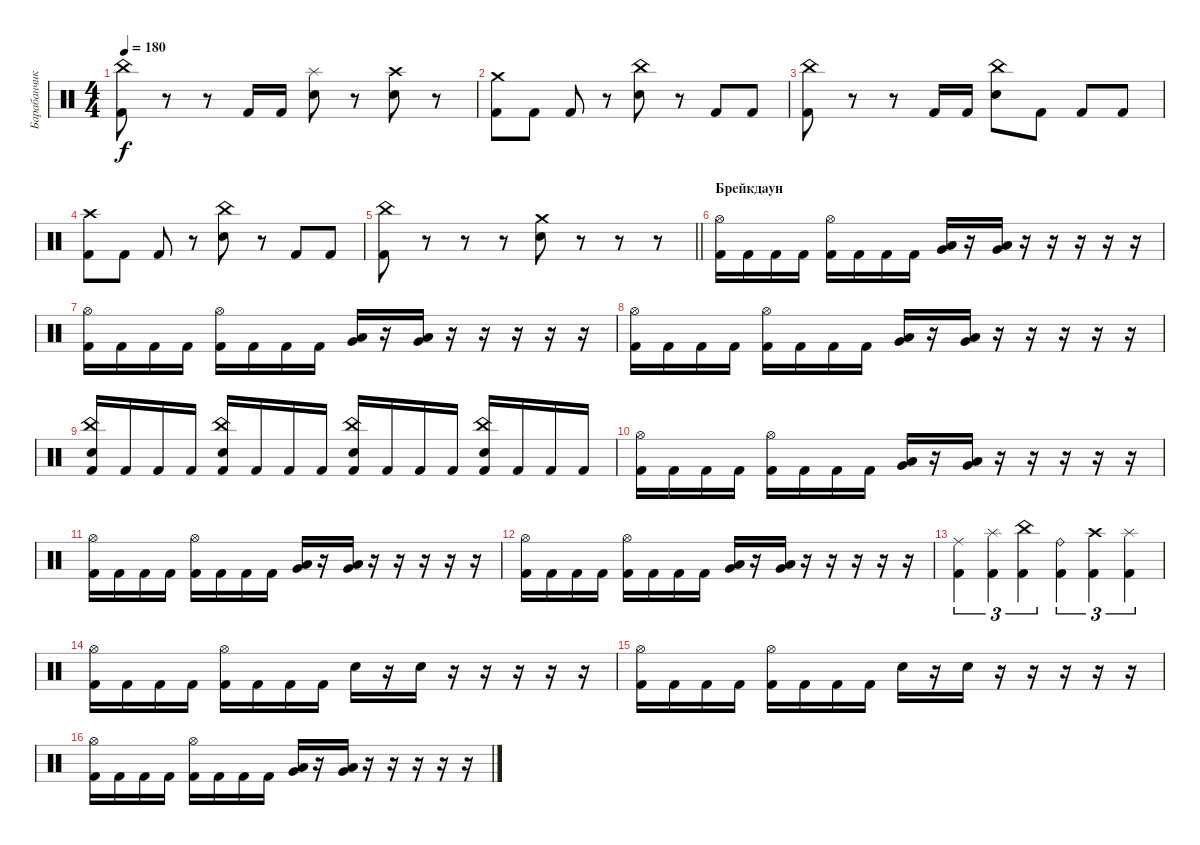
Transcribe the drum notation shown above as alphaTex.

\track ("Барабанчики" "Барабанчик") {instrument percussion}
\staff {score}
\articulation defaults
\ts (4 4)
\tempo 180
\clef neutral
\ks c
("Kick (hit) 2" "China (hit)").8{dy f} r.8 r.8 "Kick (hit) 2".16 "Kick (hit) 2".16 ("Electric Snare (hit)" "Splash (hit)").8 r.8 ("Electric Snare (hit)" "Crash high (hit)").8 r.8 |
("Kick (hit) 2" "Crash medium (hit)").8 "Kick (hit) 2".8 "Kick (hit) 2".8 r.8 ("Electric Snare (hit)" "China (hit)").8 r.8 "Kick (hit) 2".8 "Kick (hit) 2".8 |
("Kick (hit) 2" "China (hit)").8 r.8 r.8 "Kick (hit) 2".16 "Kick (hit) 2".16 ("Electric Snare (hit)" "China (hit)").8 "Kick (hit) 2".8 "Kick (hit) 2".8 "Kick (hit) 2".8 |
("Kick (hit) 2" "Crash high (hit)").8 "Kick (hit) 2".8 "Kick (hit) 2".8 r.8 ("Electric Snare (hit)" "China (hit)").8 r.8 "Kick (hit) 2".8 "Kick (hit) 2".8 |
\barLineRight lightlight
("Kick (hit) 2" "China (hit)").8 r.8 r.8 r.8 ("Electric Snare (hit)" "Crash medium (hit)").8 r.8 r.8 r.8 |
\section ("" "Брейкдаун")
("Kick (hit) 2" "Hi-Hat (open)").16 "Kick (hit) 2".16 "Kick (hit) 2".16 "Kick (hit) 2".16 ("Kick (hit) 2" "Hi-Hat (open)").16 "Kick (hit) 2".16 "Kick (hit) 2".16 "Kick (hit) 2".16 ("Low Floor Tom (hit)" "Very Low Tom (hit)").16 r.16 ("Low Floor Tom (hit)" "Very Low Tom (hit)").16 r.16 r.16 r.16 r.16 r.16 |
("Kick (hit) 2" "Hi-Hat (open)").16 "Kick (hit) 2".16 "Kick (hit) 2".16 "Kick (hit) 2".16 ("Kick (hit) 2" "Hi-Hat (open)").16 "Kick (hit) 2".16 "Kick (hit) 2".16 "Kick (hit) 2".16 ("Low Floor Tom (hit)" "Very Low Tom (hit)").16 r.16 ("Low Floor Tom (hit)" "Very Low Tom (hit)").16 r.16 r.16 r.16 r.16 r.16 |
("Kick (hit) 2" "Hi-Hat (open)").16 "Kick (hit) 2".16 "Kick (hit) 2".16 "Kick (hit) 2".16 ("Kick (hit) 2" "Hi-Hat (open)").16 "Kick (hit) 2".16 "Kick (hit) 2".16 "Kick (hit) 2".16 ("Low Floor Tom (hit)" "Very Low Tom (hit)").16 r.16 ("Low Floor Tom (hit)" "Very Low Tom (hit)").16 r.16 r.16 r.16 r.16 r.16 |
("Kick (hit) 2" "Electric Snare (hit)" "China (hit)").16 "Kick (hit) 2".16 "Kick (hit) 2".16 "Kick (hit) 2".16 ("Kick (hit) 2" "Electric Snare (hit)" "China (hit)").16 "Kick (hit) 2".16 "Kick (hit) 2".16 "Kick (hit) 2".16 ("Kick (hit) 2" "Electric Snare (hit)" "China (hit)").16 "Kick (hit) 2".16 "Kick (hit) 2".16 "Kick (hit) 2".16 ("Kick (hit) 2" "Electric Snare (hit)" "China (hit)").16 "Kick (hit) 2".16 "Kick (hit) 2".16 "Kick (hit) 2".16 |
("Kick (hit) 2" "Hi-Hat (open)").16 "Kick (hit) 2".16 "Kick (hit) 2".16 "Kick (hit) 2".16 ("Kick (hit) 2" "Hi-Hat (open)").16 "Kick (hit) 2".16 "Kick (hit) 2".16 "Kick (hit) 2".16 ("Low Floor Tom (hit)" "Very Low Tom (hit)").16 r.16 ("Low Floor Tom (hit)" "Very Low Tom (hit)").16 r.16 r.16 r.16 r.16 r.16 |
("Kick (hit) 2" "Hi-Hat (open)").16 "Kick (hit) 2".16 "Kick (hit) 2".16 "Kick (hit) 2".16 ("Kick (hit) 2" "Hi-Hat (open)").16 "Kick (hit) 2".16 "Kick (hit) 2".16 "Kick (hit) 2".16 ("Low Floor Tom (hit)" "Very Low Tom (hit)").16 r.16 ("Low Floor Tom (hit)" "Very Low Tom (hit)").16 r.16 r.16 r.16 r.16 r.16 |
("Kick (hit) 2" "Hi-Hat (open)").16 "Kick (hit) 2".16 "Kick (hit) 2".16 "Kick (hit) 2".16 ("Kick (hit) 2" "Hi-Hat (open)").16 "Kick (hit) 2".16 "Kick (hit) 2".16 "Kick (hit) 2".16 ("Low Floor Tom (hit)" "Very Low Tom (hit)").16 r.16 ("Low Floor Tom (hit)" "Very Low Tom (hit)").16 r.16 r.16 r.16 r.16 r.16 |
("Kick (hit) 2" "Ride (middle)").4{tu (3 2)} ("Kick (hit) 2" "Splash (hit)").4{tu (3 2)} ("Kick (hit) 2" "China (hit)").4{tu (3 2)} ("Kick (hit) 2" "Ride (bell)").4{tu (3 2)} ("Kick (hit) 2" "Crash high (hit)").4{tu (3 2)} ("Kick (hit) 2" "Splash (hit)").4{tu (3 2)} |
("Kick (hit) 2" "Hi-Hat (open)").16 "Kick (hit) 2".16 "Kick (hit) 2".16 "Kick (hit) 2".16 ("Kick (hit) 2" "Hi-Hat (open)").16 "Kick (hit) 2".16 "Kick (hit) 2".16 "Kick (hit) 2".16 "Electric Snare (hit)".16 r.16 "Electric Snare (hit)".16 r.16 r.16 r.16 r.16 r.16 |
("Kick (hit) 2" "Hi-Hat (open)").16 "Kick (hit) 2".16 "Kick (hit) 2".16 "Kick (hit) 2".16 ("Kick (hit) 2" "Hi-Hat (open)").16 "Kick (hit) 2".16 "Kick (hit) 2".16 "Kick (hit) 2".16 "Electric Snare (hit)".16 r.16 "Electric Snare (hit)".16 r.16 r.16 r.16 r.16 r.16 |
("Kick (hit) 2" "Hi-Hat (open)").16 "Kick (hit) 2".16 "Kick (hit) 2".16 "Kick (hit) 2".16 ("Kick (hit) 2" "Hi-Hat (open)").16 "Kick (hit) 2".16 "Kick (hit) 2".16 "Kick (hit) 2".16 ("Very Low Tom (hit)" "Low Floor Tom (hit)").16 r.16 ("Very Low Tom (hit)" "Low Floor Tom (hit)").16 r.16 r.16 r.16 r.16 r.16
